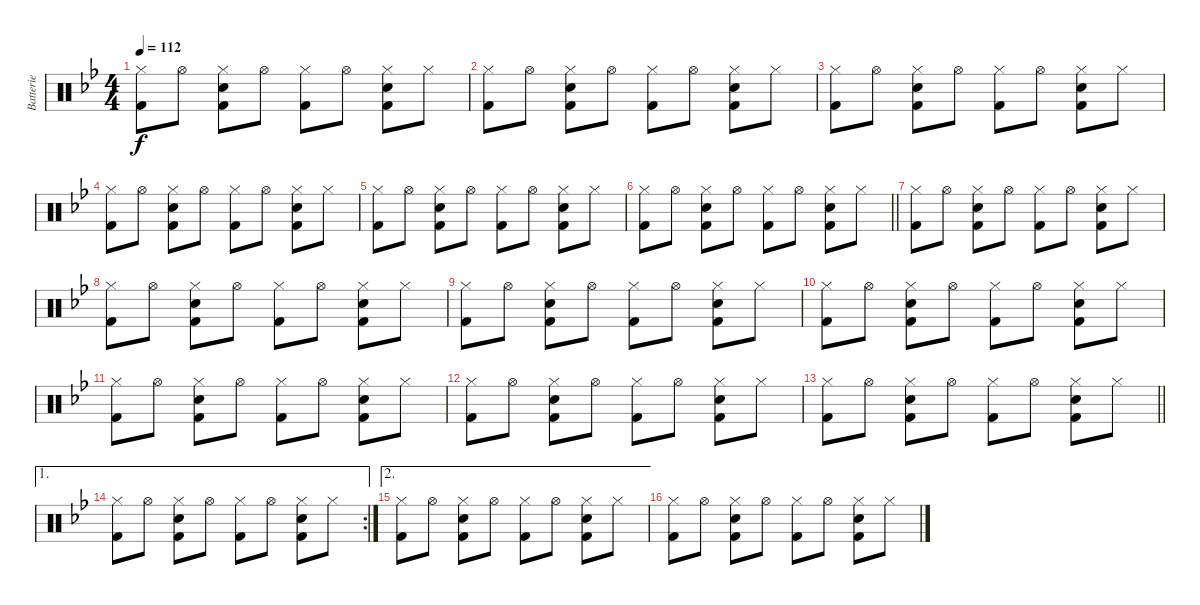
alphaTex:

\track ("Batterie" "Batterie") {instrument percussion}
\staff {score}
\articulation defaults
\ts (4 4)
\tempo 112
\clef neutral
\ks bb
("Hi-Hat (closed)" "Kick (hit) 2").8{dy f} "Hi-Hat (open)".8 ("Hi-Hat (closed)" "Snare (hit) 2" "Kick (hit) 2").8 "Hi-Hat (open)".8 ("Hi-Hat (closed)" "Kick (hit) 2").8 "Hi-Hat (open)".8 ("Hi-Hat (closed)" "Snare (hit) 2" "Kick (hit) 2").8 "Hi-Hat (closed)".8 |
("Hi-Hat (closed)" "Kick (hit) 2").8 "Hi-Hat (open)".8 ("Hi-Hat (closed)" "Snare (hit) 2" "Kick (hit) 2").8 "Hi-Hat (open)".8 ("Hi-Hat (closed)" "Kick (hit) 2").8 "Hi-Hat (open)".8 ("Hi-Hat (closed)" "Snare (hit) 2" "Kick (hit) 2").8 "Hi-Hat (closed)".8 |
("Hi-Hat (closed)" "Kick (hit) 2").8 "Hi-Hat (open)".8 ("Hi-Hat (closed)" "Snare (hit) 2" "Kick (hit) 2").8 "Hi-Hat (open)".8 ("Hi-Hat (closed)" "Kick (hit) 2").8 "Hi-Hat (open)".8 ("Hi-Hat (closed)" "Snare (hit) 2" "Kick (hit) 2").8 "Hi-Hat (closed)".8 |
("Hi-Hat (closed)" "Kick (hit) 2").8 "Hi-Hat (open)".8 ("Hi-Hat (closed)" "Snare (hit) 2" "Kick (hit) 2").8 "Hi-Hat (open)".8 ("Hi-Hat (closed)" "Kick (hit) 2").8 "Hi-Hat (open)".8 ("Hi-Hat (closed)" "Snare (hit) 2" "Kick (hit) 2").8 "Hi-Hat (closed)".8 |
("Hi-Hat (closed)" "Kick (hit) 2").8 "Hi-Hat (open)".8 ("Hi-Hat (closed)" "Snare (hit) 2" "Kick (hit) 2").8 "Hi-Hat (open)".8 ("Hi-Hat (closed)" "Kick (hit) 2").8 "Hi-Hat (open)".8 ("Hi-Hat (closed)" "Snare (hit) 2" "Kick (hit) 2").8 "Hi-Hat (closed)".8 |
\barLineRight lightlight
("Hi-Hat (closed)" "Kick (hit) 2").8 "Hi-Hat (open)".8 ("Hi-Hat (closed)" "Snare (hit) 2" "Kick (hit) 2").8 "Hi-Hat (open)".8 ("Hi-Hat (closed)" "Kick (hit) 2").8 "Hi-Hat (open)".8 ("Hi-Hat (closed)" "Snare (hit) 2" "Kick (hit) 2").8 "Hi-Hat (closed)".8 |
("Hi-Hat (closed)" "Kick (hit) 2").8 "Hi-Hat (open)".8 ("Hi-Hat (closed)" "Snare (hit) 2" "Kick (hit) 2").8 "Hi-Hat (open)".8 ("Hi-Hat (closed)" "Kick (hit) 2").8 "Hi-Hat (open)".8 ("Hi-Hat (closed)" "Snare (hit) 2" "Kick (hit) 2").8 "Hi-Hat (closed)".8 |
("Hi-Hat (closed)" "Kick (hit) 2").8 "Hi-Hat (open)".8 ("Hi-Hat (closed)" "Snare (hit) 2" "Kick (hit) 2").8 "Hi-Hat (open)".8 ("Hi-Hat (closed)" "Kick (hit) 2").8 "Hi-Hat (open)".8 ("Hi-Hat (closed)" "Snare (hit) 2" "Kick (hit) 2").8 "Hi-Hat (closed)".8 |
("Hi-Hat (closed)" "Kick (hit) 2").8 "Hi-Hat (open)".8 ("Hi-Hat (closed)" "Snare (hit) 2" "Kick (hit) 2").8 "Hi-Hat (open)".8 ("Hi-Hat (closed)" "Kick (hit) 2").8 "Hi-Hat (open)".8 ("Hi-Hat (closed)" "Snare (hit) 2" "Kick (hit) 2").8 "Hi-Hat (closed)".8 |
("Hi-Hat (closed)" "Kick (hit) 2").8 "Hi-Hat (open)".8 ("Hi-Hat (closed)" "Snare (hit) 2" "Kick (hit) 2").8 "Hi-Hat (open)".8 ("Hi-Hat (closed)" "Kick (hit) 2").8 "Hi-Hat (open)".8 ("Hi-Hat (closed)" "Snare (hit) 2" "Kick (hit) 2").8 "Hi-Hat (closed)".8 |
("Hi-Hat (closed)" "Kick (hit) 2").8 "Hi-Hat (open)".8 ("Hi-Hat (closed)" "Snare (hit) 2" "Kick (hit) 2").8 "Hi-Hat (open)".8 ("Hi-Hat (closed)" "Kick (hit) 2").8 "Hi-Hat (open)".8 ("Hi-Hat (closed)" "Snare (hit) 2" "Kick (hit) 2").8 "Hi-Hat (closed)".8 |
("Hi-Hat (closed)" "Kick (hit) 2").8 "Hi-Hat (open)".8 ("Hi-Hat (closed)" "Snare (hit) 2" "Kick (hit) 2").8 "Hi-Hat (open)".8 ("Hi-Hat (closed)" "Kick (hit) 2").8 "Hi-Hat (open)".8 ("Hi-Hat (closed)" "Snare (hit) 2" "Kick (hit) 2").8 "Hi-Hat (closed)".8 |
\barLineRight lightlight
("Hi-Hat (closed)" "Kick (hit) 2").8 "Hi-Hat (open)".8 ("Hi-Hat (closed)" "Snare (hit) 2" "Kick (hit) 2").8 "Hi-Hat (open)".8 ("Hi-Hat (closed)" "Kick (hit) 2").8 "Hi-Hat (open)".8 ("Hi-Hat (closed)" "Snare (hit) 2" "Kick (hit) 2").8 "Hi-Hat (closed)".8 |
\ae 1
\rc 2
("Hi-Hat (closed)" "Kick (hit) 2").8 "Hi-Hat (open)".8 ("Hi-Hat (closed)" "Snare (hit) 2" "Kick (hit) 2").8 "Hi-Hat (open)".8 ("Hi-Hat (closed)" "Kick (hit) 2").8 "Hi-Hat (open)".8 ("Hi-Hat (closed)" "Snare (hit) 2" "Kick (hit) 2").8 "Hi-Hat (closed)".8 |
\ae 2
("Hi-Hat (closed)" "Kick (hit) 2").8 "Hi-Hat (open)".8 ("Hi-Hat (closed)" "Snare (hit) 2" "Kick (hit) 2").8 "Hi-Hat (open)".8 ("Hi-Hat (closed)" "Kick (hit) 2").8 "Hi-Hat (open)".8 ("Hi-Hat (closed)" "Snare (hit) 2" "Kick (hit) 2").8 "Hi-Hat (closed)".8 |
("Hi-Hat (closed)" "Kick (hit) 2").8 "Hi-Hat (open)".8 ("Hi-Hat (closed)" "Snare (hit) 2" "Kick (hit) 2").8 "Hi-Hat (open)".8 ("Hi-Hat (closed)" "Kick (hit) 2").8 "Hi-Hat (open)".8 ("Hi-Hat (closed)" "Snare (hit) 2" "Kick (hit) 2").8 "Hi-Hat (closed)".8
